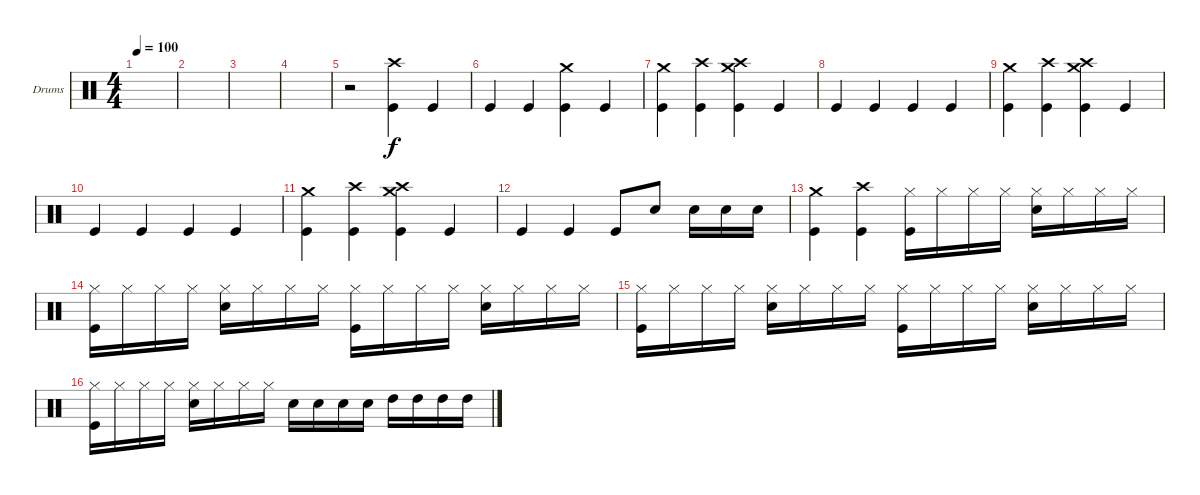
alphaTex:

\bracketExtendMode groupsimilarinstruments
\firstSystemTrackNameOrientation horizontal
\otherSystemsTrackNameOrientation horizontal
\track ("Drumkit" "Drums") {instrument percussion}
\staff {score}
\articulation defaults
\ts (4 4)
\tempo 100
\clef neutral
\ks c
|
|
|
|
r.2 ("Kick (hit)" "Crash high (hit)").4 "Kick (hit)".4 |
"Kick (hit)".4 "Kick (hit)".4 ("Kick (hit)" "Crash medium (hit)").4 "Kick (hit)".4 |
("Kick (hit)" "Crash medium (hit)").4 ("Kick (hit)" "Crash high (hit)").4 ("Kick (hit)" "Crash medium (hit)" "Crash high (hit)").4 "Kick (hit)".4 |
"Kick (hit)".4 "Kick (hit)".4 "Kick (hit)".4 "Kick (hit)".4 |
("Kick (hit)" "Crash medium (hit)").4 ("Kick (hit)" "Crash high (hit)").4 ("Kick (hit)" "Crash medium (hit)" "Crash high (hit)").4 "Kick (hit)".4 |
"Kick (hit)".4 "Kick (hit)".4 "Kick (hit)".4 "Kick (hit)".4 |
("Kick (hit)" "Crash medium (hit)").4 ("Kick (hit)" "Crash high (hit)").4 ("Kick (hit)" "Crash medium (hit)" "Crash high (hit)").4 "Kick (hit)".4 |
"Kick (hit)".4 "Kick (hit)".4 "Kick (hit)".8 "Snare (hit) 2".8 "Snare (hit) 2".16 "Snare (hit) 2".16 "Snare (hit) 2".16 |
("Kick (hit)" "Crash medium (hit)").4 ("Kick (hit)" "Crash high (hit)").4 ("Kick (hit)" "Hi-Hat (closed)").16 "Hi-Hat (closed)".16 "Hi-Hat (closed)".16 "Hi-Hat (closed)".16 ("Snare (hit) 2" "Hi-Hat (closed)").16 "Hi-Hat (closed)".16 "Hi-Hat (closed)".16 "Hi-Hat (closed)".16 |
("Kick (hit)" "Hi-Hat (closed)").16 "Hi-Hat (closed)".16 "Hi-Hat (closed)".16 "Hi-Hat (closed)".16 ("Snare (hit) 2" "Hi-Hat (closed)").16 "Hi-Hat (closed)".16 "Hi-Hat (closed)".16 "Hi-Hat (closed)".16 ("Kick (hit)" "Hi-Hat (closed)").16 "Hi-Hat (closed)".16 "Hi-Hat (closed)".16 "Hi-Hat (closed)".16 ("Snare (hit) 2" "Hi-Hat (closed)").16 "Hi-Hat (closed)".16 "Hi-Hat (closed)".16 "Hi-Hat (closed)".16 |
("Kick (hit)" "Hi-Hat (closed)").16 "Hi-Hat (closed)".16 "Hi-Hat (closed)".16 "Hi-Hat (closed)".16 ("Snare (hit) 2" "Hi-Hat (closed)").16 "Hi-Hat (closed)".16 "Hi-Hat (closed)".16 "Hi-Hat (closed)".16 ("Kick (hit)" "Hi-Hat (closed)").16 "Hi-Hat (closed)".16 "Hi-Hat (closed)".16 "Hi-Hat (closed)".16 ("Snare (hit) 2" "Hi-Hat (closed)").16 "Hi-Hat (closed)".16 "Hi-Hat (closed)".16 "Hi-Hat (closed)".16 |
("Kick (hit)" "Hi-Hat (closed)").16 "Hi-Hat (closed)".16 "Hi-Hat (closed)".16 "Hi-Hat (closed)".16 ("Snare (hit) 2" "Hi-Hat (closed)").16 "Hi-Hat (closed)".16 "Hi-Hat (closed)".16 "Hi-Hat (closed)".16 "Snare (hit) 2".16 "Snare (hit) 2".16 "Snare (hit) 2".16 "Snare (hit) 2".16 "High Tom (hit)".16 "High Tom (hit)".16 "High Tom (hit)".16 "High Tom (hit)".16
